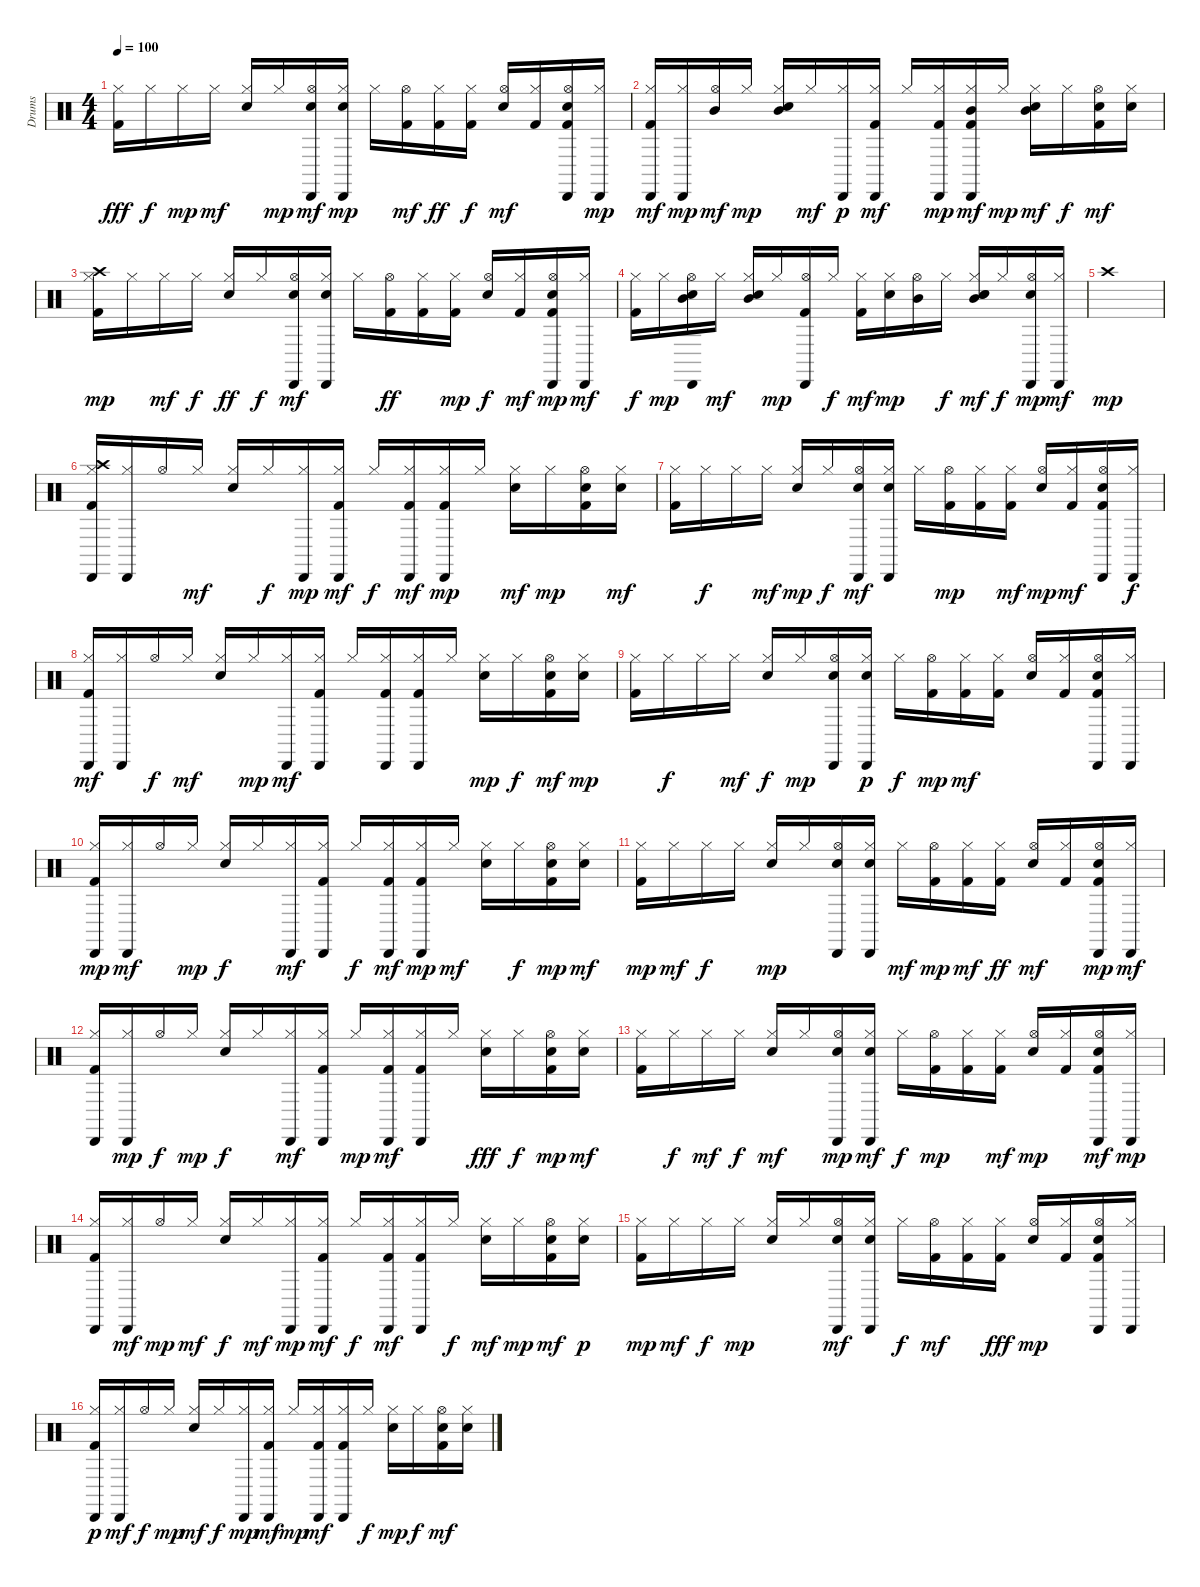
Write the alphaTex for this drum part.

\track ("Drums" "Drums") {instrument percussion}
\staff {score}
\articulation defaults
\ts (4 4)
\tempo 100
\clef neutral
\ks c
("Kick (hit) 2" "Hi-Hat (closed)").16{dy fff} "Hi-Hat (closed)".16{dy f} "Hi-Hat (closed)".16{dy mp} "Hi-Hat (closed)".16{dy mf} ("Snare (hit) 2" "Hi-Hat (closed)").16 "Hi-Hat (closed)".16{dy mp} ("Hand Clap (hit)" "Hi-Hat (open)" "Cabasa (hit)").16{dy mf} ("Hand Clap (hit)" "Hi-Hat (closed)" "Cabasa (hit)").16{dy mp} "Hi-Hat (closed)".16 ("Kick (hit) 2" "Hi-Hat (open)").16{dy mf} ("Kick (hit) 2" "Hi-Hat (closed)").16{dy ff} ("Kick (hit) 2" "Hi-Hat (closed)").16{dy f} ("Snare (hit) 2" "Hi-Hat (open)").16{dy mf} ("Kick (hit) 2" "Hi-Hat (closed)").16 ("Kick (hit) 2" "Hand Clap (hit)" "Hi-Hat (open)" "Cabasa (hit)").16 ("Hi-Hat (closed)" "Cabasa (hit)").16{dy mp} |
("Kick (hit) 2" "Hi-Hat (closed)" "Cabasa (hit)").16{dy mf} ("Hi-Hat (closed)" "Cabasa (hit)").16{dy mp} ("Hi-Hat (open)" "Mid Tom (hit)").16{dy mf} "Hi-Hat (closed)".16{dy mp} ("Snare (hit) 2" "Hi-Hat (closed)" "Mid Tom (hit)").16 "Hi-Hat (closed)".16{dy mf} ("Hi-Hat (closed)" "Cabasa (hit)").16{dy p} ("Kick (hit) 2" "Hi-Hat (closed)" "Cabasa (hit)").16{dy mf} "Hi-Hat (closed)".16 ("Kick (hit) 2" "Hi-Hat (closed)" "Cabasa (hit)").16{dy mp} ("Kick (hit) 2" "Hi-Hat (closed)" "Mid Tom (hit)" "Cabasa (hit)").16{dy mf} "Hi-Hat (closed)".16{dy mp} ("Snare (hit) 2" "Hi-Hat (closed)" "Mid Tom (hit)").16{dy mf} "Hi-Hat (closed)".16{dy f} ("Kick (hit) 2" "Hand Clap (hit)" "Hi-Hat (open)").16{dy mf} ("Hand Clap (hit)" "Hi-Hat (closed)").16 |
("Kick (hit) 2" "Hi-Hat (closed)" "Crash high (hit)").16{dy mp} "Hi-Hat (closed)".16 "Hi-Hat (closed)".16{dy mf} "Hi-Hat (closed)".16{dy f} ("Snare (hit) 2" "Hi-Hat (closed)").16{dy ff} "Hi-Hat (closed)".16{dy f} ("Hand Clap (hit)" "Hi-Hat (open)" "Cabasa (hit)").16{dy mf} ("Hand Clap (hit)" "Hi-Hat (closed)" "Cabasa (hit)").16 "Hi-Hat (closed)".16 ("Kick (hit) 2" "Hi-Hat (open)").16{dy ff} ("Kick (hit) 2" "Hi-Hat (closed)").16 ("Kick (hit) 2" "Hi-Hat (closed)").16{dy mp} ("Snare (hit) 2" "Hi-Hat (open)").16{dy f} ("Kick (hit) 2" "Hi-Hat (closed)").16{dy mf} ("Kick (hit) 2" "Hand Clap (hit)" "Hi-Hat (open)" "Cabasa (hit)").16{dy mp} ("Hi-Hat (closed)" "Cabasa (hit)").16{dy mf} |
("Kick (hit) 2" "Hi-Hat (closed)").16{dy f} "Hi-Hat (closed)".16{dy mp} ("Hand Clap (hit)" "Hi-Hat (open)" "Mid Tom (hit)" "Cabasa (hit)").16 "Hi-Hat (closed)".16{dy mf} ("Snare (hit) 2" "Hi-Hat (closed)" "Mid Tom (hit)").16 "Hi-Hat (closed)".16{dy mp} ("Kick (hit) 2" "Hi-Hat (open)" "Cabasa (hit)").16 "Hi-Hat (closed)".16{dy f} ("Kick (hit) 2" "Hi-Hat (closed)").16{dy mf} ("Hand Clap (hit)" "Hi-Hat (closed)").16{dy mp} ("Hi-Hat (open)" "Mid Tom (hit)").16 "Hi-Hat (closed)".16{dy f} ("Snare (hit) 2" "Hand Clap (hit)" "Hi-Hat (closed)" "Mid Tom (hit)").16{dy mf} "Hi-Hat (closed)".16{dy f} ("Hand Clap (hit)" "Hi-Hat (open)" "Cabasa (hit)").16{dy mp} ("Hi-Hat (closed)" "Cabasa (hit)").16{dy mf} |
"Crash high (hit)".1{dy mp} |
("Kick (hit) 2" "Hi-Hat (closed)" "Crash high (hit)" "Cabasa (hit)").16 ("Hi-Hat (closed)" "Cabasa (hit)").16 "Hi-Hat (open)".16 "Hi-Hat (closed)".16{dy mf} ("Snare (hit) 2" "Hi-Hat (closed)").16 "Hi-Hat (closed)".16{dy f} ("Hi-Hat (closed)" "Cabasa (hit)").16{dy mp} ("Kick (hit) 2" "Hi-Hat (closed)" "Cabasa (hit)").16{dy mf} "Hi-Hat (closed)".16{dy f} ("Kick (hit) 2" "Hi-Hat (closed)" "Cabasa (hit)").16{dy mf} ("Kick (hit) 2" "Hi-Hat (closed)" "Cabasa (hit)").16{dy mp} "Hi-Hat (closed)".16 ("Snare (hit) 2" "Hi-Hat (closed)").16{dy mf} "Hi-Hat (closed)".16{dy mp} ("Kick (hit) 2" "Hand Clap (hit)" "Hi-Hat (open)").16 ("Hand Clap (hit)" "Hi-Hat (closed)").16{dy mf} |
("Kick (hit) 2" "Hi-Hat (closed)").16 "Hi-Hat (closed)".16{dy f} "Hi-Hat (closed)".16 "Hi-Hat (closed)".16{dy mf} ("Snare (hit) 2" "Hi-Hat (closed)").16{dy mp} "Hi-Hat (closed)".16{dy f} ("Hand Clap (hit)" "Hi-Hat (open)" "Cabasa (hit)").16{dy mf} ("Hand Clap (hit)" "Hi-Hat (closed)" "Cabasa (hit)").16 "Hi-Hat (closed)".16 ("Kick (hit) 2" "Hi-Hat (open)").16{dy mp} ("Kick (hit) 2" "Hi-Hat (closed)").16 ("Kick (hit) 2" "Hi-Hat (closed)").16{dy mf} ("Snare (hit) 2" "Hi-Hat (open)").16{dy mp} ("Kick (hit) 2" "Hi-Hat (closed)").16{dy mf} ("Kick (hit) 2" "Hand Clap (hit)" "Hi-Hat (open)" "Cabasa (hit)").16 ("Hi-Hat (closed)" "Cabasa (hit)").16{dy f} |
("Kick (hit) 2" "Hi-Hat (closed)" "Cabasa (hit)").16{dy mf} ("Hi-Hat (closed)" "Cabasa (hit)").16 "Hi-Hat (open)".16{dy f} "Hi-Hat (closed)".16{dy mf} ("Snare (hit) 2" "Hi-Hat (closed)").16 "Hi-Hat (closed)".16{dy mp} ("Hi-Hat (closed)" "Cabasa (hit)").16{dy mf} ("Kick (hit) 2" "Hi-Hat (closed)" "Cabasa (hit)").16 "Hi-Hat (closed)".16 ("Kick (hit) 2" "Hi-Hat (closed)" "Cabasa (hit)").16 ("Kick (hit) 2" "Hi-Hat (closed)" "Cabasa (hit)").16 "Hi-Hat (closed)".16 ("Snare (hit) 2" "Hi-Hat (closed)").16{dy mp} "Hi-Hat (closed)".16{dy f} ("Kick (hit) 2" "Hand Clap (hit)" "Hi-Hat (open)").16{dy mf} ("Hand Clap (hit)" "Hi-Hat (closed)").16{dy mp} |
("Kick (hit) 2" "Hi-Hat (closed)").16 "Hi-Hat (closed)".16{dy f} "Hi-Hat (closed)".16 "Hi-Hat (closed)".16{dy mf} ("Snare (hit) 2" "Hi-Hat (closed)").16{dy f} "Hi-Hat (closed)".16{dy mp} ("Hand Clap (hit)" "Hi-Hat (open)" "Cabasa (hit)").16 ("Hand Clap (hit)" "Hi-Hat (closed)" "Cabasa (hit)").16{dy p} "Hi-Hat (closed)".16{dy f} ("Kick (hit) 2" "Hi-Hat (open)").16{dy mp} ("Kick (hit) 2" "Hi-Hat (closed)").16{dy mf} ("Kick (hit) 2" "Hi-Hat (closed)").16 ("Snare (hit) 2" "Hi-Hat (open)").16 ("Kick (hit) 2" "Hi-Hat (closed)").16 ("Kick (hit) 2" "Hand Clap (hit)" "Hi-Hat (open)" "Cabasa (hit)").16 ("Hi-Hat (closed)" "Cabasa (hit)").16 |
("Kick (hit) 2" "Hi-Hat (closed)" "Cabasa (hit)").16{dy mp} ("Hi-Hat (closed)" "Cabasa (hit)").16{dy mf} "Hi-Hat (open)".16 "Hi-Hat (closed)".16{dy mp} ("Snare (hit) 2" "Hi-Hat (closed)").16{dy f} "Hi-Hat (closed)".16 ("Hi-Hat (closed)" "Cabasa (hit)").16{dy mf} ("Kick (hit) 2" "Hi-Hat (closed)" "Cabasa (hit)").16 "Hi-Hat (closed)".16{dy f} ("Kick (hit) 2" "Hi-Hat (closed)" "Cabasa (hit)").16{dy mf} ("Kick (hit) 2" "Hi-Hat (closed)" "Cabasa (hit)").16{dy mp} "Hi-Hat (closed)".16{dy mf} ("Snare (hit) 2" "Hi-Hat (closed)").16 "Hi-Hat (closed)".16{dy f} ("Kick (hit) 2" "Hand Clap (hit)" "Hi-Hat (open)").16{dy mp} ("Hand Clap (hit)" "Hi-Hat (closed)").16{dy mf} |
("Kick (hit) 2" "Hi-Hat (closed)").16{dy mp} "Hi-Hat (closed)".16{dy mf} "Hi-Hat (closed)".16{dy f} "Hi-Hat (closed)".16 ("Snare (hit) 2" "Hi-Hat (closed)").16{dy mp} "Hi-Hat (closed)".16 ("Hand Clap (hit)" "Hi-Hat (open)" "Cabasa (hit)").16 ("Hand Clap (hit)" "Hi-Hat (closed)" "Cabasa (hit)").16 "Hi-Hat (closed)".16{dy mf} ("Kick (hit) 2" "Hi-Hat (open)").16{dy mp} ("Kick (hit) 2" "Hi-Hat (closed)").16{dy mf} ("Kick (hit) 2" "Hi-Hat (closed)").16{dy ff} ("Snare (hit) 2" "Hi-Hat (open)").16{dy mf} ("Kick (hit) 2" "Hi-Hat (closed)").16 ("Kick (hit) 2" "Hand Clap (hit)" "Hi-Hat (open)" "Cabasa (hit)").16{dy mp} ("Hi-Hat (closed)" "Cabasa (hit)").16{dy mf} |
("Kick (hit) 2" "Hi-Hat (closed)" "Cabasa (hit)").16 ("Hi-Hat (closed)" "Cabasa (hit)").16{dy mp} "Hi-Hat (open)".16{dy f} "Hi-Hat (closed)".16{dy mp} ("Snare (hit) 2" "Hi-Hat (closed)").16{dy f} "Hi-Hat (closed)".16 ("Hi-Hat (closed)" "Cabasa (hit)").16{dy mf} ("Kick (hit) 2" "Hi-Hat (closed)" "Cabasa (hit)").16 "Hi-Hat (closed)".16{dy mp} ("Kick (hit) 2" "Hi-Hat (closed)" "Cabasa (hit)").16{dy mf} ("Kick (hit) 2" "Hi-Hat (closed)" "Cabasa (hit)").16 "Hi-Hat (closed)".16 ("Snare (hit) 2" "Hi-Hat (closed)").16{dy fff} "Hi-Hat (closed)".16{dy f} ("Kick (hit) 2" "Hand Clap (hit)" "Hi-Hat (open)").16{dy mp} ("Hand Clap (hit)" "Hi-Hat (closed)").16{dy mf} |
("Kick (hit) 2" "Hi-Hat (closed)").16 "Hi-Hat (closed)".16{dy f} "Hi-Hat (closed)".16{dy mf} "Hi-Hat (closed)".16{dy f} ("Snare (hit) 2" "Hi-Hat (closed)").16{dy mf} "Hi-Hat (closed)".16 ("Hand Clap (hit)" "Hi-Hat (open)" "Cabasa (hit)").16{dy mp} ("Hand Clap (hit)" "Hi-Hat (closed)" "Cabasa (hit)").16{dy mf} "Hi-Hat (closed)".16{dy f} ("Kick (hit) 2" "Hi-Hat (open)").16{dy mp} ("Kick (hit) 2" "Hi-Hat (closed)").16 ("Kick (hit) 2" "Hi-Hat (closed)").16{dy mf} ("Snare (hit) 2" "Hi-Hat (open)").16{dy mp} ("Kick (hit) 2" "Hi-Hat (closed)").16 ("Kick (hit) 2" "Hand Clap (hit)" "Hi-Hat (open)" "Cabasa (hit)").16{dy mf} ("Hi-Hat (closed)" "Cabasa (hit)").16{dy mp} |
("Kick (hit) 2" "Hi-Hat (closed)" "Cabasa (hit)").16 ("Hi-Hat (closed)" "Cabasa (hit)").16{dy mf} "Hi-Hat (open)".16{dy mp} "Hi-Hat (closed)".16{dy mf} ("Snare (hit) 2" "Hi-Hat (closed)").16{dy f} "Hi-Hat (closed)".16{dy mf} ("Hi-Hat (closed)" "Cabasa (hit)").16{dy mp} ("Kick (hit) 2" "Hi-Hat (closed)" "Cabasa (hit)").16{dy mf} "Hi-Hat (closed)".16{dy f} ("Kick (hit) 2" "Hi-Hat (closed)" "Cabasa (hit)").16{dy mf} ("Kick (hit) 2" "Hi-Hat (closed)" "Cabasa (hit)").16 "Hi-Hat (closed)".16{dy f} ("Snare (hit) 2" "Hi-Hat (closed)").16{dy mf} "Hi-Hat (closed)".16{dy mp} ("Kick (hit) 2" "Hand Clap (hit)" "Hi-Hat (open)").16{dy mf} ("Hand Clap (hit)" "Hi-Hat (closed)").16{dy p} |
("Kick (hit) 2" "Hi-Hat (closed)").16{dy mp} "Hi-Hat (closed)".16{dy mf} "Hi-Hat (closed)".16{dy f} "Hi-Hat (closed)".16{dy mp} ("Snare (hit) 2" "Hi-Hat (closed)").16 "Hi-Hat (closed)".16 ("Hand Clap (hit)" "Hi-Hat (open)" "Cabasa (hit)").16{dy mf} ("Hand Clap (hit)" "Hi-Hat (closed)" "Cabasa (hit)").16 "Hi-Hat (closed)".16{dy f} ("Kick (hit) 2" "Hi-Hat (open)").16{dy mf} ("Kick (hit) 2" "Hi-Hat (closed)").16 ("Kick (hit) 2" "Hi-Hat (closed)").16{dy fff} ("Snare (hit) 2" "Hi-Hat (open)").16{dy mp} ("Kick (hit) 2" "Hi-Hat (closed)").16 ("Kick (hit) 2" "Hand Clap (hit)" "Hi-Hat (open)" "Cabasa (hit)").16 ("Hi-Hat (closed)" "Cabasa (hit)").16 |
("Kick (hit) 2" "Hi-Hat (closed)" "Cabasa (hit)").16{dy p} ("Hi-Hat (closed)" "Cabasa (hit)").16{dy mf} "Hi-Hat (open)".16{dy f} "Hi-Hat (closed)".16{dy mp} ("Snare (hit) 2" "Hi-Hat (closed)").16{dy mf} "Hi-Hat (closed)".16{dy f} ("Hi-Hat (closed)" "Cabasa (hit)").16{dy mp} ("Kick (hit) 2" "Hi-Hat (closed)" "Cabasa (hit)").16{dy mf} "Hi-Hat (closed)".16{dy mp} ("Kick (hit) 2" "Hi-Hat (closed)" "Cabasa (hit)").16{dy mf} ("Kick (hit) 2" "Hi-Hat (closed)" "Cabasa (hit)").16 "Hi-Hat (closed)".16{dy f} ("Snare (hit) 2" "Hi-Hat (closed)").16{dy mp} "Hi-Hat (closed)".16{dy f} ("Kick (hit) 2" "Hand Clap (hit)" "Hi-Hat (open)").16{dy mf} ("Hand Clap (hit)" "Hi-Hat (closed)").16
